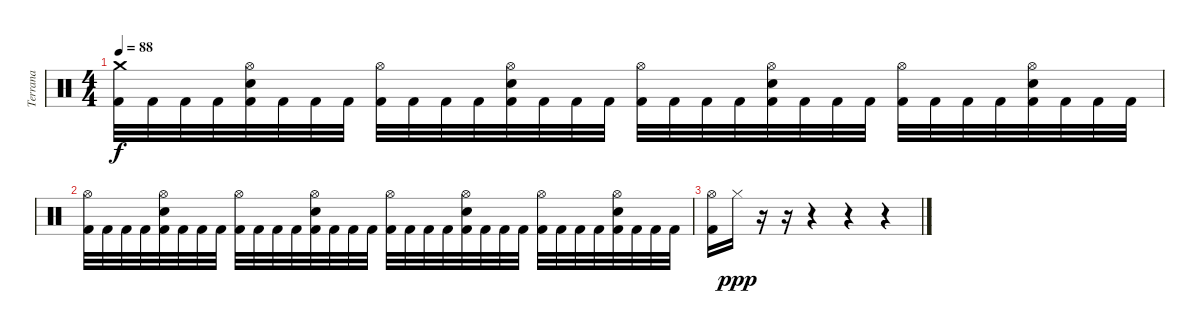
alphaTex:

\track ("Terrana" "Terrana") {instrument percussion}
\staff {score}
\articulation defaults
\ts (4 4)
\tempo 88
\clef neutral
\ks c
("Crash medium (hit)" "Kick (hit) 2").32{dy f} "Kick (hit) 2".32 "Kick (hit) 2".32 "Kick (hit) 2".32 ("Hi-Hat (open)" "Electric Snare (hit)" "Kick (hit) 2").32 "Kick (hit) 2".32 "Kick (hit) 2".32 "Kick (hit) 2".32 ("Hi-Hat (open)" "Kick (hit) 2").32 "Kick (hit) 2".32 "Kick (hit) 2".32 "Kick (hit) 2".32 ("Hi-Hat (open)" "Electric Snare (hit)" "Kick (hit) 2").32 "Kick (hit) 2".32 "Kick (hit) 2".32 "Kick (hit) 2".32 ("Hi-Hat (open)" "Kick (hit) 2").32 "Kick (hit) 2".32 "Kick (hit) 2".32 "Kick (hit) 2".32 ("Hi-Hat (open)" "Electric Snare (hit)" "Kick (hit) 2").32 "Kick (hit) 2".32 "Kick (hit) 2".32 "Kick (hit) 2".32 ("Hi-Hat (open)" "Kick (hit) 2").32 "Kick (hit) 2".32 "Kick (hit) 2".32 "Kick (hit) 2".32 ("Hi-Hat (open)" "Electric Snare (hit)" "Kick (hit) 2").32 "Kick (hit) 2".32 "Kick (hit) 2".32 "Kick (hit) 2".32 |
("Hi-Hat (open)" "Kick (hit) 2").32 "Kick (hit) 2".32 "Kick (hit) 2".32 "Kick (hit) 2".32 ("Hi-Hat (open)" "Electric Snare (hit)" "Kick (hit) 2").32 "Kick (hit) 2".32 "Kick (hit) 2".32 "Kick (hit) 2".32 ("Hi-Hat (open)" "Kick (hit) 2").32 "Kick (hit) 2".32 "Kick (hit) 2".32 "Kick (hit) 2".32 ("Hi-Hat (open)" "Electric Snare (hit)" "Kick (hit) 2").32 "Kick (hit) 2".32 "Kick (hit) 2".32 "Kick (hit) 2".32 ("Hi-Hat (open)" "Kick (hit) 2").32 "Kick (hit) 2".32 "Kick (hit) 2".32 "Kick (hit) 2".32 ("Hi-Hat (open)" "Electric Snare (hit)" "Kick (hit) 2").32 "Kick (hit) 2".32 "Kick (hit) 2".32 "Kick (hit) 2".32 ("Hi-Hat (open)" "Kick (hit) 2").32 "Kick (hit) 2".32 "Kick (hit) 2".32 "Kick (hit) 2".32 ("Hi-Hat (open)" "Electric Snare (hit)" "Kick (hit) 2").32 "Kick (hit) 2".32 "Kick (hit) 2".32 "Kick (hit) 2".32 |
("Hi-Hat (open)" "Kick (hit) 2").16 "Hi-Hat (closed)".16{dy ppp} r.16 r.16 r.4 r.4 r.4
